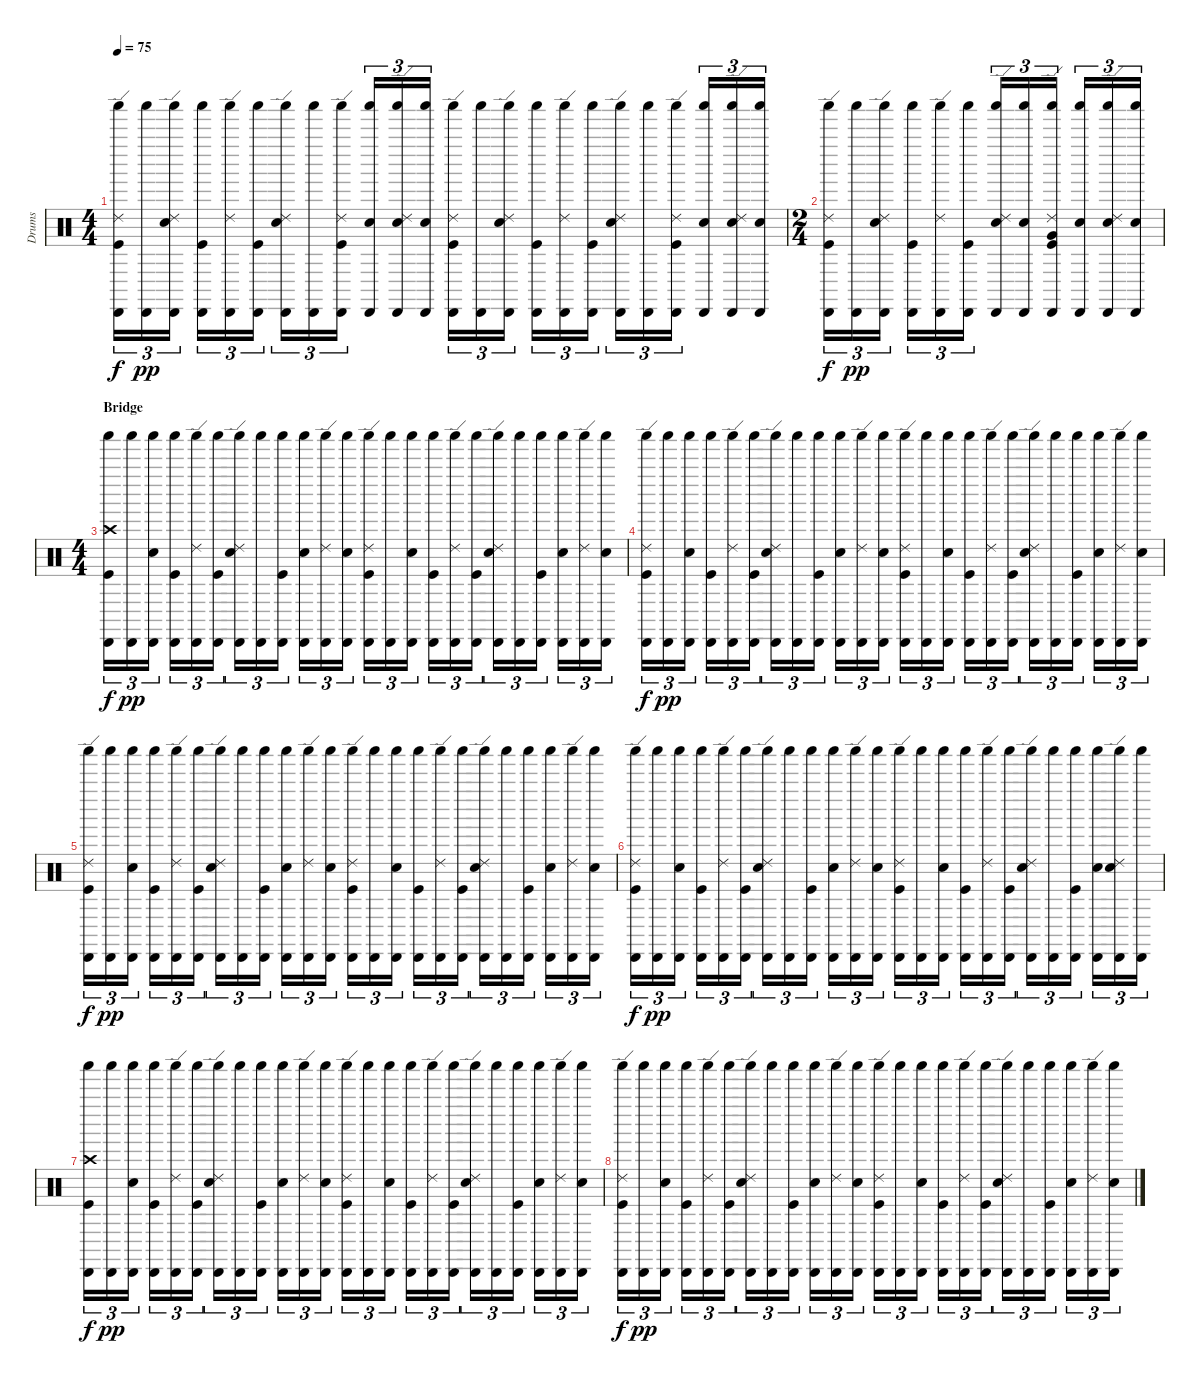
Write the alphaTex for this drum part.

\track ("Drums" "Drums") {instrument percussion}
\staff {score}
\articulation defaults
\ts (4 4)
\tempo 75
\clef neutral
\ks c
("Cabasa (hit)" "Ride (edge) 2" "Kick (hit)" "Shaker (hit)").16{tu (3 2) dy f} ("Cabasa (hit)" "Shaker (hit)").16{tu (3 2) dy pp} ("Electric Snare (hit)" "Ride (edge) 2" "Cabasa (hit)" "Shaker (hit)").16{tu (3 2)} ("Cabasa (hit)" "Kick (hit)" "Shaker (hit)").16{tu (3 2)} ("Ride (edge) 2" "Cabasa (hit)" "Shaker (hit)").16{tu (3 2)} ("Kick (hit)" "Cabasa (hit)" "Shaker (hit)").16{tu (3 2)} ("Cabasa (hit)" "Electric Snare (hit)" "Ride (edge) 2" "Shaker (hit)").16{tu (3 2)} ("Cabasa (hit)" "Shaker (hit)").16{tu (3 2)} ("Cabasa (hit)" "Ride (edge) 2" "Kick (hit)" "Shaker (hit)").16{tu (3 2)} ("Cabasa (hit)" "Electric Snare (hit)" "Shaker (hit)").16{tu (3 2)} ("Electric Snare (hit)" "Ride (edge) 2" "Cabasa (hit)" "Shaker (hit)").16{tu (3 2)} ("Cabasa (hit)" "Electric Snare (hit)" "Shaker (hit)").16{tu (3 2)} ("Cabasa (hit)" "Ride (edge) 2" "Kick (hit)" "Shaker (hit)").16{tu (3 2)} ("Cabasa (hit)" "Shaker (hit)").16{tu (3 2)} ("Cabasa (hit)" "Electric Snare (hit)" "Ride (edge) 2" "Shaker (hit)").16{tu (3 2)} ("Cabasa (hit)" "Kick (hit)" "Shaker (hit)").16{tu (3 2)} ("Cabasa (hit)" "Ride (edge) 2" "Shaker (hit)").16{tu (3 2)} ("Kick (hit)" "Cabasa (hit)" "Shaker (hit)").16{tu (3 2)} ("Cabasa (hit)" "Electric Snare (hit)" "Ride (edge) 2" "Shaker (hit)").16{tu (3 2)} ("Cabasa (hit)" "Shaker (hit)").16{tu (3 2)} ("Cabasa (hit)" "Kick (hit)" "Ride (edge) 2" "Shaker (hit)").16{tu (3 2)} ("Cabasa (hit)" "Electric Snare (hit)" "Shaker (hit)").16{tu (3 2)} ("Electric Snare (hit)" "Ride (edge) 2" "Cabasa (hit)" "Shaker (hit)").16{tu (3 2)} ("Cabasa (hit)" "Electric Snare (hit)" "Shaker (hit)").16{tu (3 2)} |
\ts (2 4)
("Ride (edge) 2" "Cabasa (hit)" "Kick (hit)" "Shaker (hit)").16{tu (3 2) dy f} ("Cabasa (hit)" "Shaker (hit)").16{tu (3 2) dy pp} ("Electric Snare (hit)" "Ride (edge) 2" "Cabasa (hit)" "Shaker (hit)").16{tu (3 2)} ("Cabasa (hit)" "Kick (hit)" "Shaker (hit)").16{tu (3 2)} ("Cabasa (hit)" "Ride (edge) 2" "Shaker (hit)").16{tu (3 2)} ("Cabasa (hit)" "Kick (hit)" "Shaker (hit)").16{tu (3 2)} ("Ride (edge) 2" "Electric Snare (hit)" "Cabasa (hit)" "Shaker (hit)").16{tu (3 2)} ("Cabasa (hit)" "Electric Snare (hit)" "Shaker (hit)").16{tu (3 2)} ("Kick (hit)" "Cabasa (hit)" "Ride (edge) 2" "Very Low Tom (hit)" "Shaker (hit)").16{tu (3 2)} ("Cabasa (hit)" "Electric Snare (hit)" "Shaker (hit)").16{tu (3 2)} ("Electric Snare (hit)" "Cabasa (hit)" "Ride (edge) 2" "Shaker (hit)").16{tu (3 2)} ("Cabasa (hit)" "Electric Snare (hit)" "Shaker (hit)").16{tu (3 2)} |
\ts (4 4)
\section ("" "Bridge")
("Cabasa (hit)" "Shaker (hit)" "Crash high (hit)" "Kick (hit)").16{tu (3 2) dy f} ("Cabasa (hit)" "Shaker (hit)").16{tu (3 2) dy pp} ("Electric Snare (hit)" "Cabasa (hit)" "Shaker (hit)").16{tu (3 2)} ("Cabasa (hit)" "Kick (hit)" "Shaker (hit)").16{tu (3 2)} ("Cabasa (hit)" "Ride (edge) 2" "Shaker (hit)").16{tu (3 2)} ("Kick (hit)" "Cabasa (hit)" "Shaker (hit)").16{tu (3 2)} ("Cabasa (hit)" "Electric Snare (hit)" "Ride (edge) 2" "Shaker (hit)").16{tu (3 2)} ("Cabasa (hit)" "Shaker (hit)").16{tu (3 2)} ("Kick (hit)" "Cabasa (hit)" "Shaker (hit)").16{tu (3 2)} ("Electric Snare (hit)" "Cabasa (hit)" "Shaker (hit)").16{tu (3 2)} ("Cabasa (hit)" "Ride (edge) 2" "Shaker (hit)").16{tu (3 2)} ("Electric Snare (hit)" "Cabasa (hit)" "Shaker (hit)").16{tu (3 2)} ("Kick (hit)" "Ride (edge) 2" "Cabasa (hit)" "Shaker (hit)").16{tu (3 2)} ("Cabasa (hit)" "Shaker (hit)").16{tu (3 2)} ("Cabasa (hit)" "Electric Snare (hit)" "Shaker (hit)").16{tu (3 2)} ("Cabasa (hit)" "Kick (hit)" "Shaker (hit)").16{tu (3 2)} ("Cabasa (hit)" "Ride (edge) 2" "Shaker (hit)").16{tu (3 2)} ("Kick (hit)" "Cabasa (hit)" "Shaker (hit)").16{tu (3 2)} ("Ride (edge) 2" "Electric Snare (hit)" "Cabasa (hit)" "Shaker (hit)").16{tu (3 2)} ("Cabasa (hit)" "Shaker (hit)").16{tu (3 2)} ("Cabasa (hit)" "Kick (hit)" "Shaker (hit)").16{tu (3 2)} ("Cabasa (hit)" "Electric Snare (hit)" "Shaker (hit)").16{tu (3 2)} ("Ride (edge) 2" "Cabasa (hit)" "Shaker (hit)").16{tu (3 2)} ("Electric Snare (hit)" "Cabasa (hit)" "Shaker (hit)").16{tu (3 2)} |
("Cabasa (hit)" "Shaker (hit)" "Ride (edge) 2" "Kick (hit)").16{tu (3 2) dy f} ("Cabasa (hit)" "Shaker (hit)").16{tu (3 2) dy pp} ("Electric Snare (hit)" "Cabasa (hit)" "Shaker (hit)").16{tu (3 2)} ("Cabasa (hit)" "Kick (hit)" "Shaker (hit)").16{tu (3 2)} ("Cabasa (hit)" "Ride (edge) 2" "Shaker (hit)").16{tu (3 2)} ("Kick (hit)" "Cabasa (hit)" "Shaker (hit)").16{tu (3 2)} ("Cabasa (hit)" "Electric Snare (hit)" "Ride (edge) 2" "Shaker (hit)").16{tu (3 2)} ("Cabasa (hit)" "Shaker (hit)").16{tu (3 2)} ("Kick (hit)" "Cabasa (hit)" "Shaker (hit)").16{tu (3 2)} ("Electric Snare (hit)" "Cabasa (hit)" "Shaker (hit)").16{tu (3 2)} ("Cabasa (hit)" "Ride (edge) 2" "Shaker (hit)").16{tu (3 2)} ("Electric Snare (hit)" "Cabasa (hit)" "Shaker (hit)").16{tu (3 2)} ("Kick (hit)" "Ride (edge) 2" "Cabasa (hit)" "Shaker (hit)").16{tu (3 2)} ("Cabasa (hit)" "Shaker (hit)").16{tu (3 2)} ("Cabasa (hit)" "Electric Snare (hit)" "Shaker (hit)").16{tu (3 2)} ("Cabasa (hit)" "Kick (hit)" "Shaker (hit)").16{tu (3 2)} ("Cabasa (hit)" "Ride (edge) 2" "Shaker (hit)").16{tu (3 2)} ("Kick (hit)" "Cabasa (hit)" "Shaker (hit)").16{tu (3 2)} ("Ride (edge) 2" "Electric Snare (hit)" "Cabasa (hit)" "Shaker (hit)").16{tu (3 2)} ("Cabasa (hit)" "Shaker (hit)").16{tu (3 2)} ("Cabasa (hit)" "Kick (hit)" "Shaker (hit)").16{tu (3 2)} ("Cabasa (hit)" "Electric Snare (hit)" "Shaker (hit)").16{tu (3 2)} ("Ride (edge) 2" "Cabasa (hit)" "Shaker (hit)").16{tu (3 2)} ("Electric Snare (hit)" "Cabasa (hit)" "Shaker (hit)").16{tu (3 2)} |
("Cabasa (hit)" "Shaker (hit)" "Ride (edge) 2" "Kick (hit)").16{tu (3 2) dy f} ("Cabasa (hit)" "Shaker (hit)").16{tu (3 2) dy pp} ("Electric Snare (hit)" "Cabasa (hit)" "Shaker (hit)").16{tu (3 2)} ("Cabasa (hit)" "Kick (hit)" "Shaker (hit)").16{tu (3 2)} ("Cabasa (hit)" "Ride (edge) 2" "Shaker (hit)").16{tu (3 2)} ("Kick (hit)" "Cabasa (hit)" "Shaker (hit)").16{tu (3 2)} ("Cabasa (hit)" "Electric Snare (hit)" "Ride (edge) 2" "Shaker (hit)").16{tu (3 2)} ("Cabasa (hit)" "Shaker (hit)").16{tu (3 2)} ("Kick (hit)" "Cabasa (hit)" "Shaker (hit)").16{tu (3 2)} ("Electric Snare (hit)" "Cabasa (hit)" "Shaker (hit)").16{tu (3 2)} ("Cabasa (hit)" "Ride (edge) 2" "Shaker (hit)").16{tu (3 2)} ("Electric Snare (hit)" "Cabasa (hit)" "Shaker (hit)").16{tu (3 2)} ("Kick (hit)" "Ride (edge) 2" "Cabasa (hit)" "Shaker (hit)").16{tu (3 2)} ("Cabasa (hit)" "Shaker (hit)").16{tu (3 2)} ("Cabasa (hit)" "Electric Snare (hit)" "Shaker (hit)").16{tu (3 2)} ("Cabasa (hit)" "Kick (hit)" "Shaker (hit)").16{tu (3 2)} ("Cabasa (hit)" "Ride (edge) 2" "Shaker (hit)").16{tu (3 2)} ("Kick (hit)" "Cabasa (hit)" "Shaker (hit)").16{tu (3 2)} ("Ride (edge) 2" "Electric Snare (hit)" "Cabasa (hit)" "Shaker (hit)").16{tu (3 2)} ("Cabasa (hit)" "Shaker (hit)").16{tu (3 2)} ("Cabasa (hit)" "Kick (hit)" "Shaker (hit)").16{tu (3 2)} ("Cabasa (hit)" "Electric Snare (hit)" "Shaker (hit)").16{tu (3 2)} ("Ride (edge) 2" "Cabasa (hit)" "Shaker (hit)").16{tu (3 2)} ("Electric Snare (hit)" "Cabasa (hit)" "Shaker (hit)").16{tu (3 2)} |
("Cabasa (hit)" "Ride (edge) 2" "Kick (hit)" "Shaker (hit)").16{tu (3 2) dy f} ("Cabasa (hit)" "Shaker (hit)").16{tu (3 2) dy pp} ("Electric Snare (hit)" "Cabasa (hit)" "Shaker (hit)").16{tu (3 2)} ("Cabasa (hit)" "Kick (hit)" "Shaker (hit)").16{tu (3 2)} ("Ride (edge) 2" "Cabasa (hit)" "Shaker (hit)").16{tu (3 2)} ("Kick (hit)" "Cabasa (hit)" "Shaker (hit)").16{tu (3 2)} ("Ride (edge) 2" "Electric Snare (hit)" "Cabasa (hit)" "Shaker (hit)").16{tu (3 2)} ("Cabasa (hit)" "Shaker (hit)").16{tu (3 2)} ("Kick (hit)" "Cabasa (hit)" "Shaker (hit)").16{tu (3 2)} ("Electric Snare (hit)" "Cabasa (hit)" "Shaker (hit)").16{tu (3 2)} ("Ride (edge) 2" "Cabasa (hit)" "Shaker (hit)").16{tu (3 2)} ("Cabasa (hit)" "Electric Snare (hit)" "Shaker (hit)").16{tu (3 2)} ("Ride (edge) 2" "Kick (hit)" "Cabasa (hit)" "Shaker (hit)").16{tu (3 2)} ("Cabasa (hit)" "Shaker (hit)").16{tu (3 2)} ("Electric Snare (hit)" "Cabasa (hit)" "Shaker (hit)").16{tu (3 2)} ("Kick (hit)" "Cabasa (hit)" "Shaker (hit)").16{tu (3 2)} ("Ride (edge) 2" "Cabasa (hit)" "Shaker (hit)").16{tu (3 2)} ("Cabasa (hit)" "Kick (hit)" "Shaker (hit)").16{tu (3 2)} ("Electric Snare (hit)" "Ride (edge) 2" "Cabasa (hit)" "Shaker (hit)").16{tu (3 2)} ("Cabasa (hit)" "Shaker (hit)").16{tu (3 2)} ("Cabasa (hit)" "Kick (hit)" "Shaker (hit)").16{tu (3 2)} ("Electric Snare (hit)" "Cabasa (hit)" "Shaker (hit)").16{tu (3 2)} ("Cabasa (hit)" "Ride (edge) 2" "Electric Snare (hit)" "Shaker (hit)").16{tu (3 2)} ("Cabasa (hit)" "Shaker (hit)").16{tu (3 2)} |
("Cabasa (hit)" "Shaker (hit)" "Crash high (hit)" "Kick (hit)").16{tu (3 2) dy f} ("Cabasa (hit)" "Shaker (hit)").16{tu (3 2) dy pp} ("Electric Snare (hit)" "Cabasa (hit)" "Shaker (hit)").16{tu (3 2)} ("Cabasa (hit)" "Kick (hit)" "Shaker (hit)").16{tu (3 2)} ("Cabasa (hit)" "Ride (edge) 2" "Shaker (hit)").16{tu (3 2)} ("Kick (hit)" "Cabasa (hit)" "Shaker (hit)").16{tu (3 2)} ("Cabasa (hit)" "Electric Snare (hit)" "Ride (edge) 2" "Shaker (hit)").16{tu (3 2)} ("Cabasa (hit)" "Shaker (hit)").16{tu (3 2)} ("Kick (hit)" "Cabasa (hit)" "Shaker (hit)").16{tu (3 2)} ("Electric Snare (hit)" "Cabasa (hit)" "Shaker (hit)").16{tu (3 2)} ("Cabasa (hit)" "Ride (edge) 2" "Shaker (hit)").16{tu (3 2)} ("Electric Snare (hit)" "Cabasa (hit)" "Shaker (hit)").16{tu (3 2)} ("Kick (hit)" "Ride (edge) 2" "Cabasa (hit)" "Shaker (hit)").16{tu (3 2)} ("Cabasa (hit)" "Shaker (hit)").16{tu (3 2)} ("Cabasa (hit)" "Electric Snare (hit)" "Shaker (hit)").16{tu (3 2)} ("Cabasa (hit)" "Kick (hit)" "Shaker (hit)").16{tu (3 2)} ("Cabasa (hit)" "Ride (edge) 2" "Shaker (hit)").16{tu (3 2)} ("Kick (hit)" "Cabasa (hit)" "Shaker (hit)").16{tu (3 2)} ("Ride (edge) 2" "Electric Snare (hit)" "Cabasa (hit)" "Shaker (hit)").16{tu (3 2)} ("Cabasa (hit)" "Shaker (hit)").16{tu (3 2)} ("Cabasa (hit)" "Kick (hit)" "Shaker (hit)").16{tu (3 2)} ("Cabasa (hit)" "Electric Snare (hit)" "Shaker (hit)").16{tu (3 2)} ("Ride (edge) 2" "Cabasa (hit)" "Shaker (hit)").16{tu (3 2)} ("Electric Snare (hit)" "Cabasa (hit)" "Shaker (hit)").16{tu (3 2)} |
("Cabasa (hit)" "Shaker (hit)" "Ride (edge) 2" "Kick (hit)").16{tu (3 2) dy f} ("Cabasa (hit)" "Shaker (hit)").16{tu (3 2) dy pp} ("Electric Snare (hit)" "Cabasa (hit)" "Shaker (hit)").16{tu (3 2)} ("Cabasa (hit)" "Kick (hit)" "Shaker (hit)").16{tu (3 2)} ("Cabasa (hit)" "Ride (edge) 2" "Shaker (hit)").16{tu (3 2)} ("Kick (hit)" "Cabasa (hit)" "Shaker (hit)").16{tu (3 2)} ("Cabasa (hit)" "Electric Snare (hit)" "Ride (edge) 2" "Shaker (hit)").16{tu (3 2)} ("Cabasa (hit)" "Shaker (hit)").16{tu (3 2)} ("Kick (hit)" "Cabasa (hit)" "Shaker (hit)").16{tu (3 2)} ("Electric Snare (hit)" "Cabasa (hit)" "Shaker (hit)").16{tu (3 2)} ("Cabasa (hit)" "Ride (edge) 2" "Shaker (hit)").16{tu (3 2)} ("Electric Snare (hit)" "Cabasa (hit)" "Shaker (hit)").16{tu (3 2)} ("Kick (hit)" "Ride (edge) 2" "Cabasa (hit)" "Shaker (hit)").16{tu (3 2)} ("Cabasa (hit)" "Shaker (hit)").16{tu (3 2)} ("Cabasa (hit)" "Electric Snare (hit)" "Shaker (hit)").16{tu (3 2)} ("Cabasa (hit)" "Kick (hit)" "Shaker (hit)").16{tu (3 2)} ("Cabasa (hit)" "Ride (edge) 2" "Shaker (hit)").16{tu (3 2)} ("Kick (hit)" "Cabasa (hit)" "Shaker (hit)").16{tu (3 2)} ("Ride (edge) 2" "Electric Snare (hit)" "Cabasa (hit)" "Shaker (hit)").16{tu (3 2)} ("Cabasa (hit)" "Shaker (hit)").16{tu (3 2)} ("Cabasa (hit)" "Kick (hit)" "Shaker (hit)").16{tu (3 2)} ("Cabasa (hit)" "Electric Snare (hit)" "Shaker (hit)").16{tu (3 2)} ("Ride (edge) 2" "Cabasa (hit)" "Shaker (hit)").16{tu (3 2)} ("Electric Snare (hit)" "Cabasa (hit)" "Shaker (hit)").16{tu (3 2)}
